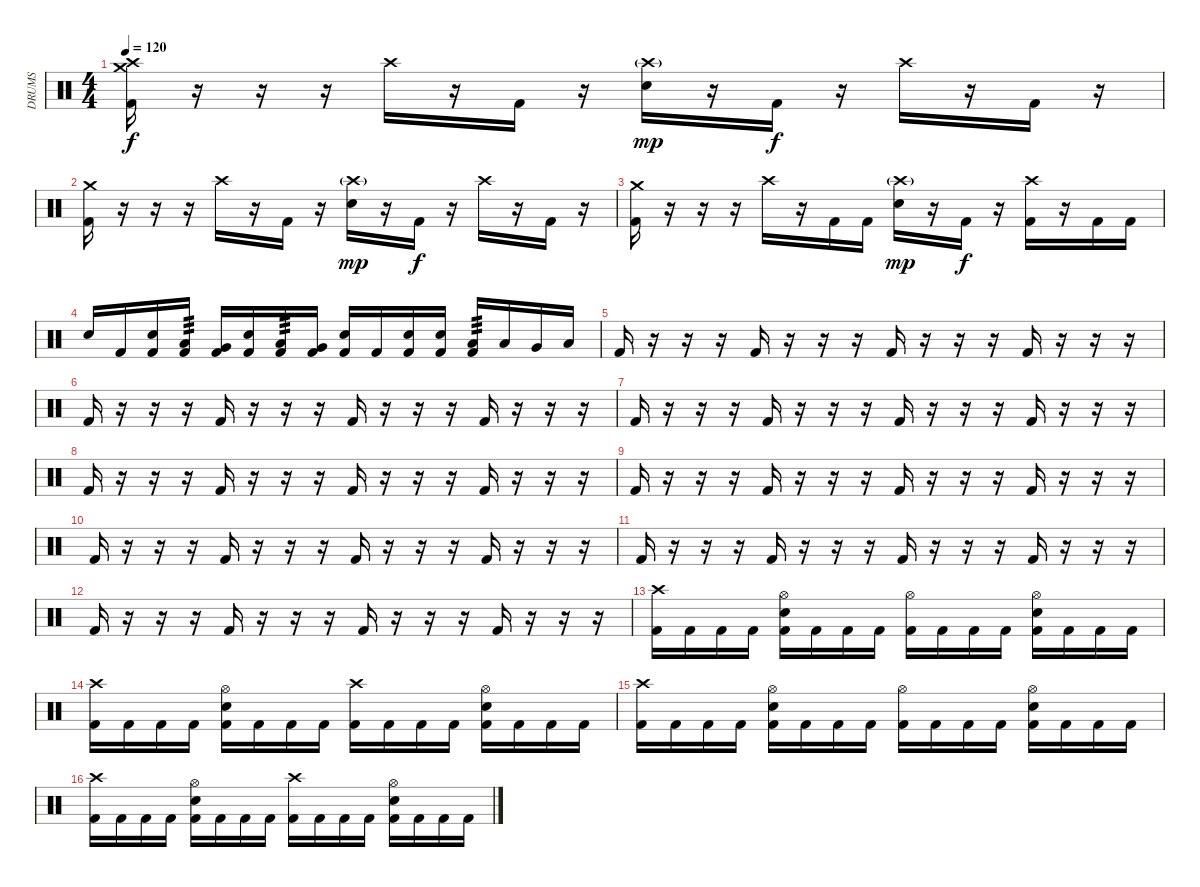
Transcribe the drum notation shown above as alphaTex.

\track ("DRUMS" "DRUMS") {instrument percussion}
\staff {score}
\articulation defaults
\ts (4 4)
\tempo 120
\clef neutral
\ks c
("Crash high (hit)" "Crash medium (hit)" "Kick (hit) 2").16{dy f} r.16 r.16 r.16 "Crash high (hit)".16 r.16 "Kick (hit) 2".16 r.16 ("Crash high (hit)"{g} "Electric Snare (hit)").16{dy mp} r.16 "Kick (hit) 2".16{dy f} r.16 "Crash high (hit)".16 r.16 "Kick (hit) 2".16 r.16 |
("Crash medium (hit)" "Kick (hit) 2").16 r.16 r.16 r.16 "Crash high (hit)".16 r.16 "Kick (hit) 2".16 r.16 ("Crash high (hit)"{g} "Electric Snare (hit)").16{dy mp} r.16 "Kick (hit) 2".16{dy f} r.16 "Crash high (hit)".16 r.16 "Kick (hit) 2".16 r.16 |
("Crash medium (hit)" "Kick (hit) 2").16 r.16 r.16 r.16 "Crash high (hit)".16 r.16 "Kick (hit) 2".16 "Kick (hit) 2".16 ("Crash high (hit)"{g} "Electric Snare (hit)").16{dy mp} r.16 "Kick (hit) 2".16{dy f} r.16 ("Crash high (hit)" "Kick (hit) 2").16 r.16 "Kick (hit) 2".16 "Kick (hit) 2".16 |
"Electric Snare (hit)".16 "Kick (hit) 2".16 ("Electric Snare (hit)" "Kick (hit) 2").16 ("Low Tom (hit)" "Kick (hit) 2").16{tp 3} ("Very Low Tom (hit)" "Kick (hit) 2").16 ("Electric Snare (hit)" "Kick (hit) 2").16 ("Low Tom (hit)" "Kick (hit) 2").16{tp 3} ("Very Low Tom (hit)" "Kick (hit) 2").16 ("Electric Snare (hit)" "Kick (hit) 2").16 "Kick (hit) 2".16 ("Electric Snare (hit)" "Kick (hit) 2").16 ("Electric Snare (hit)" "Kick (hit) 2").16 ("Low Tom (hit)" "Kick (hit) 2").16{tp 3} "Low Tom (hit)".16 "Very Low Tom (hit)".16 "Low Floor Tom (hit)".16 |
"Kick (hit) 2".16 r.16 r.16 r.16 "Kick (hit) 2".16 r.16 r.16 r.16 "Kick (hit) 2".16 r.16 r.16 r.16 "Kick (hit) 2".16 r.16 r.16 r.16 |
"Kick (hit) 2".16 r.16 r.16 r.16 "Kick (hit) 2".16 r.16 r.16 r.16 "Kick (hit) 2".16 r.16 r.16 r.16 "Kick (hit) 2".16 r.16 r.16 r.16 |
"Kick (hit) 2".16 r.16 r.16 r.16 "Kick (hit) 2".16 r.16 r.16 r.16 "Kick (hit) 2".16 r.16 r.16 r.16 "Kick (hit) 2".16 r.16 r.16 r.16 |
"Kick (hit) 2".16 r.16 r.16 r.16 "Kick (hit) 2".16 r.16 r.16 r.16 "Kick (hit) 2".16 r.16 r.16 r.16 "Kick (hit) 2".16 r.16 r.16 r.16 |
"Kick (hit) 2".16 r.16 r.16 r.16 "Kick (hit) 2".16 r.16 r.16 r.16 "Kick (hit) 2".16 r.16 r.16 r.16 "Kick (hit) 2".16 r.16 r.16 r.16 |
"Kick (hit) 2".16 r.16 r.16 r.16 "Kick (hit) 2".16 r.16 r.16 r.16 "Kick (hit) 2".16 r.16 r.16 r.16 "Kick (hit) 2".16 r.16 r.16 r.16 |
"Kick (hit) 2".16 r.16 r.16 r.16 "Kick (hit) 2".16 r.16 r.16 r.16 "Kick (hit) 2".16 r.16 r.16 r.16 "Kick (hit) 2".16 r.16 r.16 r.16 |
"Kick (hit) 2".16 r.16 r.16 r.16 "Kick (hit) 2".16 r.16 r.16 r.16 "Kick (hit) 2".16 r.16 r.16 r.16 "Kick (hit) 2".16 r.16 r.16 r.16 |
("Crash high (hit)" "Kick (hit) 2").16 "Kick (hit) 2".16 "Kick (hit) 2".16 "Kick (hit) 2".16 ("Hi-Hat (open)" "Electric Snare (hit)" "Kick (hit) 2").16 "Kick (hit) 2".16 "Kick (hit) 2".16 "Kick (hit) 2".16 ("Hi-Hat (open)" "Kick (hit) 2").16 "Kick (hit) 2".16 "Kick (hit) 2".16 "Kick (hit) 2".16 ("Hi-Hat (open)" "Electric Snare (hit)" "Kick (hit) 2").16 "Kick (hit) 2".16 "Kick (hit) 2".16 "Kick (hit) 2".16 |
("Crash high (hit)" "Kick (hit) 2").16 "Kick (hit) 2".16 "Kick (hit) 2".16 "Kick (hit) 2".16 ("Hi-Hat (open)" "Electric Snare (hit)" "Kick (hit) 2").16 "Kick (hit) 2".16 "Kick (hit) 2".16 "Kick (hit) 2".16 ("Crash high (hit)" "Kick (hit) 2").16 "Kick (hit) 2".16 "Kick (hit) 2".16 "Kick (hit) 2".16 ("Hi-Hat (open)" "Electric Snare (hit)" "Kick (hit) 2").16 "Kick (hit) 2".16 "Kick (hit) 2".16 "Kick (hit) 2".16 |
("Crash high (hit)" "Kick (hit) 2").16 "Kick (hit) 2".16 "Kick (hit) 2".16 "Kick (hit) 2".16 ("Hi-Hat (open)" "Electric Snare (hit)" "Kick (hit) 2").16 "Kick (hit) 2".16 "Kick (hit) 2".16 "Kick (hit) 2".16 ("Hi-Hat (open)" "Kick (hit) 2").16 "Kick (hit) 2".16 "Kick (hit) 2".16 "Kick (hit) 2".16 ("Hi-Hat (open)" "Electric Snare (hit)" "Kick (hit) 2").16 "Kick (hit) 2".16 "Kick (hit) 2".16 "Kick (hit) 2".16 |
("Crash high (hit)" "Kick (hit) 2").16 "Kick (hit) 2".16 "Kick (hit) 2".16 "Kick (hit) 2".16 ("Hi-Hat (open)" "Electric Snare (hit)" "Kick (hit) 2").16 "Kick (hit) 2".16 "Kick (hit) 2".16 "Kick (hit) 2".16 ("Crash high (hit)" "Kick (hit) 2").16 "Kick (hit) 2".16 "Kick (hit) 2".16 "Kick (hit) 2".16 ("Hi-Hat (open)" "Electric Snare (hit)" "Kick (hit) 2").16 "Kick (hit) 2".16 "Kick (hit) 2".16 "Kick (hit) 2".16
